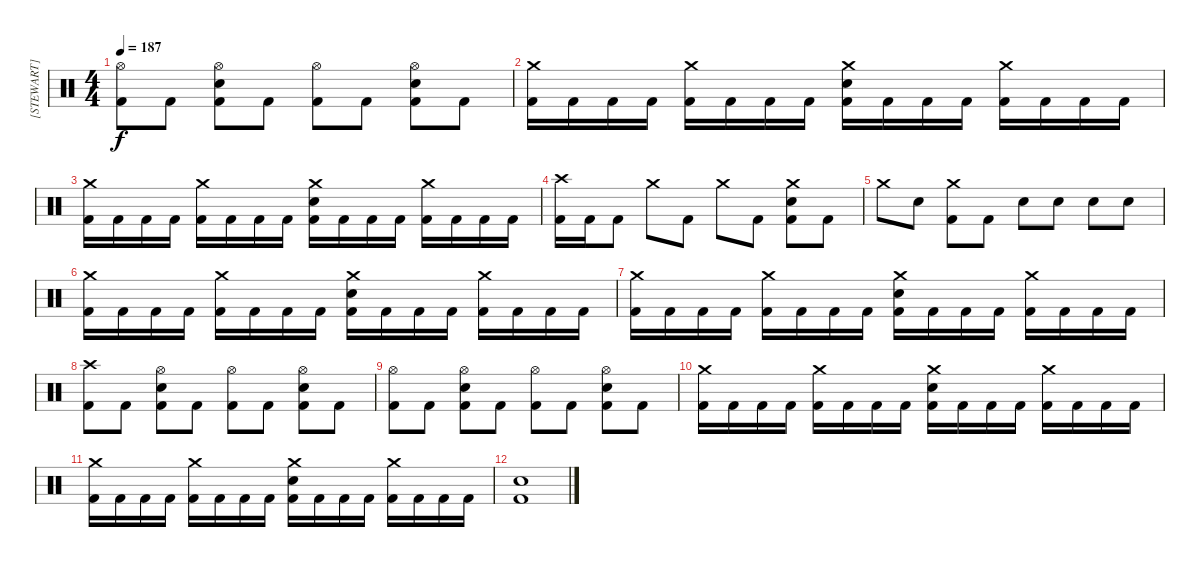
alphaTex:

\track ("[STEWART]" "[STEWART]") {instrument percussion}
\staff {score}
\articulation defaults
\ts (4 4)
\tempo 187
\clef neutral
\ks c
("Hi-Hat (open)" "Kick (hit) 2").8{dy f} "Kick (hit) 2".8 ("Hi-Hat (open)" "Electric Snare (hit)" "Kick (hit) 2").8 "Kick (hit) 2".8 ("Hi-Hat (open)" "Kick (hit) 2").8 "Kick (hit) 2".8 ("Hi-Hat (open)" "Electric Snare (hit)" "Kick (hit) 2").8 "Kick (hit) 2".8 |
("Crash medium (hit)" "Kick (hit) 2").16 "Kick (hit) 2".16 "Kick (hit) 2".16 "Kick (hit) 2".16 ("Crash medium (hit)" "Kick (hit) 2").16 "Kick (hit) 2".16 "Kick (hit) 2".16 "Kick (hit) 2".16 ("Crash medium (hit)" "Electric Snare (hit)" "Kick (hit) 2").16 "Kick (hit) 2".16 "Kick (hit) 2".16 "Kick (hit) 2".16 ("Crash medium (hit)" "Kick (hit) 2").16 "Kick (hit) 2".16 "Kick (hit) 2".16 "Kick (hit) 2".16 |
("Crash medium (hit)" "Kick (hit) 2").16 "Kick (hit) 2".16 "Kick (hit) 2".16 "Kick (hit) 2".16 ("Crash medium (hit)" "Kick (hit) 2").16 "Kick (hit) 2".16 "Kick (hit) 2".16 "Kick (hit) 2".16 ("Crash medium (hit)" "Electric Snare (hit)" "Kick (hit) 2").16 "Kick (hit) 2".16 "Kick (hit) 2".16 "Kick (hit) 2".16 ("Crash medium (hit)" "Kick (hit) 2").16 "Kick (hit) 2".16 "Kick (hit) 2".16 "Kick (hit) 2".16 |
("Crash high (hit)" "Kick (hit) 2").16 "Kick (hit) 2".16 "Kick (hit) 2".8 "Crash medium (hit)".8 "Kick (hit) 2".8 "Crash medium (hit)".8 "Kick (hit) 2".8 ("Crash medium (hit)" "Electric Snare (hit)" "Kick (hit) 2").8 "Kick (hit) 2".8 |
"Crash medium (hit)".8 "Electric Snare (hit)".8 ("Crash medium (hit)" "Kick (hit) 2").8 "Kick (hit) 2".8 "Electric Snare (hit)".8 "Electric Snare (hit)".8 "Electric Snare (hit)".8 "Electric Snare (hit)".8 |
("Crash medium (hit)" "Kick (hit) 2").16 "Kick (hit) 2".16 "Kick (hit) 2".16 "Kick (hit) 2".16 ("Crash medium (hit)" "Kick (hit) 2").16 "Kick (hit) 2".16 "Kick (hit) 2".16 "Kick (hit) 2".16 ("Crash medium (hit)" "Electric Snare (hit)" "Kick (hit) 2").16 "Kick (hit) 2".16 "Kick (hit) 2".16 "Kick (hit) 2".16 ("Crash medium (hit)" "Kick (hit) 2").16 "Kick (hit) 2".16 "Kick (hit) 2".16 "Kick (hit) 2".16 |
("Crash medium (hit)" "Kick (hit) 2").16 "Kick (hit) 2".16 "Kick (hit) 2".16 "Kick (hit) 2".16 ("Crash medium (hit)" "Kick (hit) 2").16 "Kick (hit) 2".16 "Kick (hit) 2".16 "Kick (hit) 2".16 ("Crash medium (hit)" "Electric Snare (hit)" "Kick (hit) 2").16 "Kick (hit) 2".16 "Kick (hit) 2".16 "Kick (hit) 2".16 ("Crash medium (hit)" "Kick (hit) 2").16 "Kick (hit) 2".16 "Kick (hit) 2".16 "Kick (hit) 2".16 |
("Crash high (hit)" "Kick (hit) 2").8 "Kick (hit) 2".8 ("Hi-Hat (open)" "Electric Snare (hit)" "Kick (hit) 2").8 "Kick (hit) 2".8 ("Hi-Hat (open)" "Kick (hit) 2").8 "Kick (hit) 2".8 ("Hi-Hat (open)" "Electric Snare (hit)" "Kick (hit) 2").8 "Kick (hit) 2".8 |
("Hi-Hat (open)" "Kick (hit) 2").8 "Kick (hit) 2".8 ("Hi-Hat (open)" "Electric Snare (hit)" "Kick (hit) 2").8 "Kick (hit) 2".8 ("Hi-Hat (open)" "Kick (hit) 2").8 "Kick (hit) 2".8 ("Hi-Hat (open)" "Electric Snare (hit)" "Kick (hit) 2").8 "Kick (hit) 2".8 |
("Crash medium (hit)" "Kick (hit) 2").16 "Kick (hit) 2".16 "Kick (hit) 2".16 "Kick (hit) 2".16 ("Crash medium (hit)" "Kick (hit) 2").16 "Kick (hit) 2".16 "Kick (hit) 2".16 "Kick (hit) 2".16 ("Crash medium (hit)" "Electric Snare (hit)" "Kick (hit) 2").16 "Kick (hit) 2".16 "Kick (hit) 2".16 "Kick (hit) 2".16 ("Crash medium (hit)" "Kick (hit) 2").16 "Kick (hit) 2".16 "Kick (hit) 2".16 "Kick (hit) 2".16 |
("Crash medium (hit)" "Kick (hit) 2").16 "Kick (hit) 2".16 "Kick (hit) 2".16 "Kick (hit) 2".16 ("Crash medium (hit)" "Kick (hit) 2").16 "Kick (hit) 2".16 "Kick (hit) 2".16 "Kick (hit) 2".16 ("Crash medium (hit)" "Electric Snare (hit)" "Kick (hit) 2").16 "Kick (hit) 2".16 "Kick (hit) 2".16 "Kick (hit) 2".16 ("Crash medium (hit)" "Kick (hit) 2").16 "Kick (hit) 2".16 "Kick (hit) 2".16 "Kick (hit) 2".16 |
("Electric Snare (hit)" "Kick (hit) 2").1
